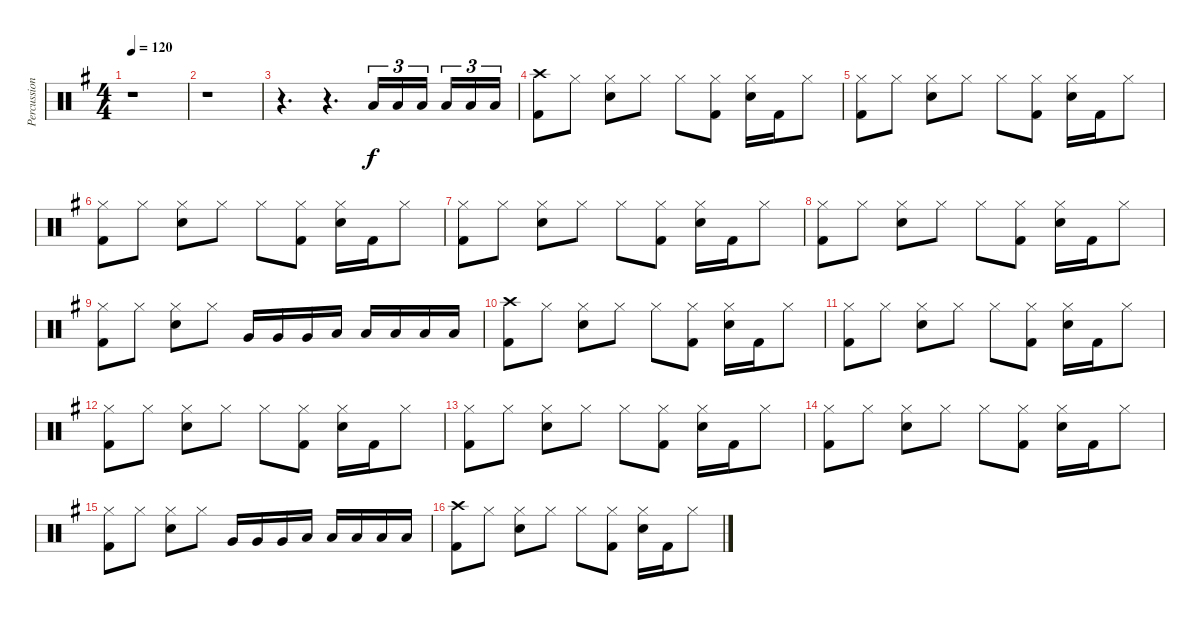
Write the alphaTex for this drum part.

\track ("Percussions" "Percussion") {instrument percussion}
\staff {score}
\articulation defaults
\ts (4 4)
\tempo 120
\clef neutral
\ks eminor
r.1{dy f} |
r.1 |
r.4{d} r.4{d} "Low Tom (hit)".16{tu (3 2)} "Low Tom (hit)".16{tu (3 2)} "Low Tom (hit)".16{tu (3 2)} "Low Floor Tom (hit)".16{tu (3 2)} "Low Floor Tom (hit)".16{tu (3 2)} "Low Floor Tom (hit)".16{tu (3 2)} |
("Crash high (hit)" "Kick (hit) 2").8 "Hi-Hat (closed)".8 ("Hi-Hat (closed)" "Snare (hit) 2").8 "Hi-Hat (closed)".8 "Hi-Hat (closed)".8 ("Hi-Hat (closed)" "Kick (hit) 2").8 ("Hi-Hat (closed)" "Snare (hit) 2").16 "Kick (hit) 2".16 "Hi-Hat (closed)".8 |
("Hi-Hat (closed)" "Kick (hit) 2").8 "Hi-Hat (closed)".8 ("Hi-Hat (closed)" "Snare (hit) 2").8 "Hi-Hat (closed)".8 "Hi-Hat (closed)".8 ("Hi-Hat (closed)" "Kick (hit) 2").8 ("Hi-Hat (closed)" "Snare (hit) 2").16 "Kick (hit) 2".16 "Hi-Hat (closed)".8 |
("Hi-Hat (closed)" "Kick (hit) 2").8 "Hi-Hat (closed)".8 ("Hi-Hat (closed)" "Snare (hit) 2").8 "Hi-Hat (closed)".8 "Hi-Hat (closed)".8 ("Hi-Hat (closed)" "Kick (hit) 2").8 ("Hi-Hat (closed)" "Snare (hit) 2").16 "Kick (hit) 2".16 "Hi-Hat (closed)".8 |
("Hi-Hat (closed)" "Kick (hit) 2").8 "Hi-Hat (closed)".8 ("Hi-Hat (closed)" "Snare (hit) 2").8 "Hi-Hat (closed)".8 "Hi-Hat (closed)".8 ("Hi-Hat (closed)" "Kick (hit) 2").8 ("Hi-Hat (closed)" "Snare (hit) 2").16 "Kick (hit) 2".16 "Hi-Hat (closed)".8 |
("Hi-Hat (closed)" "Kick (hit) 2").8 "Hi-Hat (closed)".8 ("Hi-Hat (closed)" "Snare (hit) 2").8 "Hi-Hat (closed)".8 "Hi-Hat (closed)".8 ("Hi-Hat (closed)" "Kick (hit) 2").8 ("Hi-Hat (closed)" "Snare (hit) 2").16 "Kick (hit) 2".16 "Hi-Hat (closed)".8 |
("Hi-Hat (closed)" "Kick (hit) 2").8 "Hi-Hat (closed)".8 ("Hi-Hat (closed)" "Snare (hit) 2").8 "Hi-Hat (closed)".8 "Very Low Tom (hit)".16 "Very Low Tom (hit)".16 "Very Low Tom (hit)".16 "Low Tom (hit)".16 "Low Tom (hit)".16 "Low Tom (hit)".16 "Low Floor Tom (hit)".16 "Low Floor Tom (hit)".16 |
("Crash high (hit)" "Kick (hit) 2").8 "Hi-Hat (closed)".8 ("Hi-Hat (closed)" "Snare (hit) 2").8 "Hi-Hat (closed)".8 "Hi-Hat (closed)".8 ("Hi-Hat (closed)" "Kick (hit) 2").8 ("Hi-Hat (closed)" "Snare (hit) 2").16 "Kick (hit) 2".16 "Hi-Hat (closed)".8 |
("Hi-Hat (closed)" "Kick (hit) 2").8 "Hi-Hat (closed)".8 ("Hi-Hat (closed)" "Snare (hit) 2").8 "Hi-Hat (closed)".8 "Hi-Hat (closed)".8 ("Hi-Hat (closed)" "Kick (hit) 2").8 ("Hi-Hat (closed)" "Snare (hit) 2").16 "Kick (hit) 2".16 "Hi-Hat (closed)".8 |
("Hi-Hat (closed)" "Kick (hit) 2").8 "Hi-Hat (closed)".8 ("Hi-Hat (closed)" "Snare (hit) 2").8 "Hi-Hat (closed)".8 "Hi-Hat (closed)".8 ("Hi-Hat (closed)" "Kick (hit) 2").8 ("Hi-Hat (closed)" "Snare (hit) 2").16 "Kick (hit) 2".16 "Hi-Hat (closed)".8 |
("Hi-Hat (closed)" "Kick (hit) 2").8 "Hi-Hat (closed)".8 ("Hi-Hat (closed)" "Snare (hit) 2").8 "Hi-Hat (closed)".8 "Hi-Hat (closed)".8 ("Hi-Hat (closed)" "Kick (hit) 2").8 ("Hi-Hat (closed)" "Snare (hit) 2").16 "Kick (hit) 2".16 "Hi-Hat (closed)".8 |
("Hi-Hat (closed)" "Kick (hit) 2").8 "Hi-Hat (closed)".8 ("Hi-Hat (closed)" "Snare (hit) 2").8 "Hi-Hat (closed)".8 "Hi-Hat (closed)".8 ("Hi-Hat (closed)" "Kick (hit) 2").8 ("Hi-Hat (closed)" "Snare (hit) 2").16 "Kick (hit) 2".16 "Hi-Hat (closed)".8 |
("Hi-Hat (closed)" "Kick (hit) 2").8 "Hi-Hat (closed)".8 ("Hi-Hat (closed)" "Snare (hit) 2").8 "Hi-Hat (closed)".8 "Very Low Tom (hit)".16 "Very Low Tom (hit)".16 "Very Low Tom (hit)".16 "Low Tom (hit)".16 "Low Tom (hit)".16 "Low Tom (hit)".16 "Low Floor Tom (hit)".16 "Low Floor Tom (hit)".16 |
("Crash high (hit)" "Kick (hit) 2").8 "Hi-Hat (closed)".8 ("Hi-Hat (closed)" "Snare (hit) 2").8 "Hi-Hat (closed)".8 "Hi-Hat (closed)".8 ("Hi-Hat (closed)" "Kick (hit) 2").8 ("Hi-Hat (closed)" "Snare (hit) 2").16 "Kick (hit) 2".16 "Hi-Hat (closed)".8
